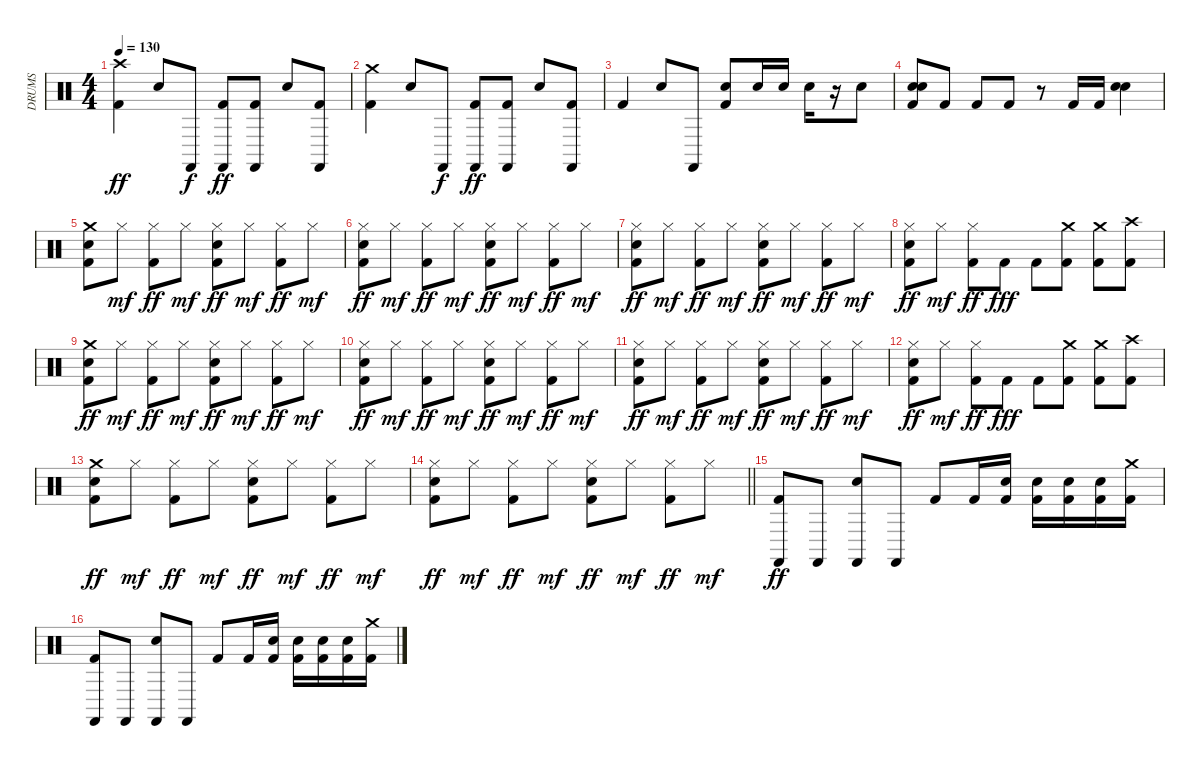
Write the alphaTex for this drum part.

\track ("DRUMS" "DRUMS") {instrument percussion}
\staff {score}
\articulation defaults
\ts (4 4)
\tempo 130
\clef neutral
\ks c
("Crash high (hit)" "Kick (hit) 2").4{dy ff} "Snare (hit) 2".8 "Castanets (hit)".8{dy f} ("Castanets (hit)" "Kick (hit) 2").8{dy ff} ("Castanets (hit)" "Kick (hit) 2").8 "Snare (hit) 2".8 ("Castanets (hit)" "Kick (hit) 2").8 |
("Crash medium (hit)" "Kick (hit) 2").4 "Snare (hit) 2".8 "Castanets (hit)".8{dy f} ("Castanets (hit)" "Kick (hit) 2").8{dy ff} ("Castanets (hit)" "Kick (hit) 2").8 "Snare (hit) 2".8 ("Castanets (hit)" "Kick (hit) 2").8 |
"Kick (hit) 2".4 "Snare (hit) 2".8 "Castanets (hit)".8 ("Snare (hit) 2" "Kick (hit) 2").8 "Snare (hit) 2".16 "Snare (hit) 2".16 "Snare (hit) 2".16 r.16 "Snare (hit) 2".8 |
("Electric Snare (hit)" "Snare (hit) 2" "Kick (hit) 2").8 "Kick (hit) 2".8 "Kick (hit) 2".8 "Kick (hit) 2".8 r.8 "Kick (hit) 2".16 "Kick (hit) 2".16 ("Electric Snare (hit)" "Snare (hit) 2").4 |
("Crash medium (hit)" "Snare (hit) 2" "Kick (hit) 2").8 "Hi-Hat (closed)".8{dy mf} ("Hi-Hat (closed)" "Kick (hit) 2").8{dy ff} "Hi-Hat (closed)".8{dy mf} ("Hi-Hat (closed)" "Snare (hit) 2" "Kick (hit) 2").8{dy ff} "Hi-Hat (closed)".8{dy mf} ("Hi-Hat (closed)" "Kick (hit) 2").8{dy ff} "Hi-Hat (closed)".8{dy mf} |
("Hi-Hat (closed)" "Snare (hit) 2" "Kick (hit) 2").8{dy ff} "Hi-Hat (closed)".8{dy mf} ("Hi-Hat (closed)" "Kick (hit) 2").8{dy ff} "Hi-Hat (closed)".8{dy mf} ("Hi-Hat (closed)" "Snare (hit) 2" "Kick (hit) 2").8{dy ff} "Hi-Hat (closed)".8{dy mf} ("Hi-Hat (closed)" "Kick (hit) 2").8{dy ff} "Hi-Hat (closed)".8{dy mf} |
("Hi-Hat (closed)" "Snare (hit) 2" "Kick (hit) 2").8{dy ff} "Hi-Hat (closed)".8{dy mf} ("Hi-Hat (closed)" "Kick (hit) 2").8{dy ff} "Hi-Hat (closed)".8{dy mf} ("Hi-Hat (closed)" "Snare (hit) 2" "Kick (hit) 2").8{dy ff} "Hi-Hat (closed)".8{dy mf} ("Hi-Hat (closed)" "Kick (hit) 2").8{dy ff} "Hi-Hat (closed)".8{dy mf} |
("Hi-Hat (closed)" "Snare (hit) 2" "Kick (hit) 2").8{dy ff} "Hi-Hat (closed)".8{dy mf} ("Hi-Hat (closed)" "Kick (hit) 2").8{dy ff} "Kick (hit) 2".8{dy fff} "Kick (hit) 2".8 ("Crash medium (hit)" "Kick (hit) 2").8 ("Crash medium (hit)" "Kick (hit) 2").8 ("Crash high (hit)" "Kick (hit) 2").8 |
("Crash medium (hit)" "Snare (hit) 2" "Kick (hit) 2").8{dy ff} "Hi-Hat (closed)".8{dy mf} ("Hi-Hat (closed)" "Kick (hit) 2").8{dy ff} "Hi-Hat (closed)".8{dy mf} ("Hi-Hat (closed)" "Snare (hit) 2" "Kick (hit) 2").8{dy ff} "Hi-Hat (closed)".8{dy mf} ("Hi-Hat (closed)" "Kick (hit) 2").8{dy ff} "Hi-Hat (closed)".8{dy mf} |
("Hi-Hat (closed)" "Snare (hit) 2" "Kick (hit) 2").8{dy ff} "Hi-Hat (closed)".8{dy mf} ("Hi-Hat (closed)" "Kick (hit) 2").8{dy ff} "Hi-Hat (closed)".8{dy mf} ("Hi-Hat (closed)" "Snare (hit) 2" "Kick (hit) 2").8{dy ff} "Hi-Hat (closed)".8{dy mf} ("Hi-Hat (closed)" "Kick (hit) 2").8{dy ff} "Hi-Hat (closed)".8{dy mf} |
("Hi-Hat (closed)" "Snare (hit) 2" "Kick (hit) 2").8{dy ff} "Hi-Hat (closed)".8{dy mf} ("Hi-Hat (closed)" "Kick (hit) 2").8{dy ff} "Hi-Hat (closed)".8{dy mf} ("Hi-Hat (closed)" "Snare (hit) 2" "Kick (hit) 2").8{dy ff} "Hi-Hat (closed)".8{dy mf} ("Hi-Hat (closed)" "Kick (hit) 2").8{dy ff} "Hi-Hat (closed)".8{dy mf} |
("Hi-Hat (closed)" "Snare (hit) 2" "Kick (hit) 2").8{dy ff} "Hi-Hat (closed)".8{dy mf} ("Hi-Hat (closed)" "Kick (hit) 2").8{dy ff} "Kick (hit) 2".8{dy fff} "Kick (hit) 2".8 ("Crash medium (hit)" "Kick (hit) 2").8 ("Crash medium (hit)" "Kick (hit) 2").8 ("Crash high (hit)" "Kick (hit) 2").8 |
("Crash medium (hit)" "Snare (hit) 2" "Kick (hit) 2").8{dy ff} "Hi-Hat (closed)".8{dy mf} ("Hi-Hat (closed)" "Kick (hit) 2").8{dy ff} "Hi-Hat (closed)".8{dy mf} ("Hi-Hat (closed)" "Snare (hit) 2" "Kick (hit) 2").8{dy ff} "Hi-Hat (closed)".8{dy mf} ("Hi-Hat (closed)" "Kick (hit) 2").8{dy ff} "Hi-Hat (closed)".8{dy mf} |
\barLineRight lightlight
("Hi-Hat (closed)" "Snare (hit) 2" "Kick (hit) 2").8{dy ff} "Hi-Hat (closed)".8{dy mf} ("Hi-Hat (closed)" "Kick (hit) 2").8{dy ff} "Hi-Hat (closed)".8{dy mf} ("Hi-Hat (closed)" "Snare (hit) 2" "Kick (hit) 2").8{dy ff} "Hi-Hat (closed)".8{dy mf} ("Hi-Hat (closed)" "Kick (hit) 2").8{dy ff} "Hi-Hat (closed)".8{dy mf} |
("Castanets (hit)" "Kick (hit) 2").8{dy ff} "Castanets (hit)".8 ("Castanets (hit)" "Snare (hit) 2").8 "Castanets (hit)".8 "Kick (hit) 2".8 "Kick (hit) 2".16 ("Snare (hit) 2" "Kick (hit) 2").16 ("Snare (hit) 2" "Kick (hit) 2").16 ("Snare (hit) 2" "Kick (hit) 2").16 ("Snare (hit) 2" "Kick (hit) 2").16 ("Crash medium (hit)" "Kick (hit) 2").16 |
("Castanets (hit)" "Kick (hit) 2").8 "Castanets (hit)".8 ("Castanets (hit)" "Snare (hit) 2").8 "Castanets (hit)".8 "Kick (hit) 2".8 "Kick (hit) 2".16 ("Snare (hit) 2" "Kick (hit) 2").16 ("Snare (hit) 2" "Kick (hit) 2").16 ("Snare (hit) 2" "Kick (hit) 2").16 ("Snare (hit) 2" "Kick (hit) 2").16 ("Crash medium (hit)" "Kick (hit) 2").16
